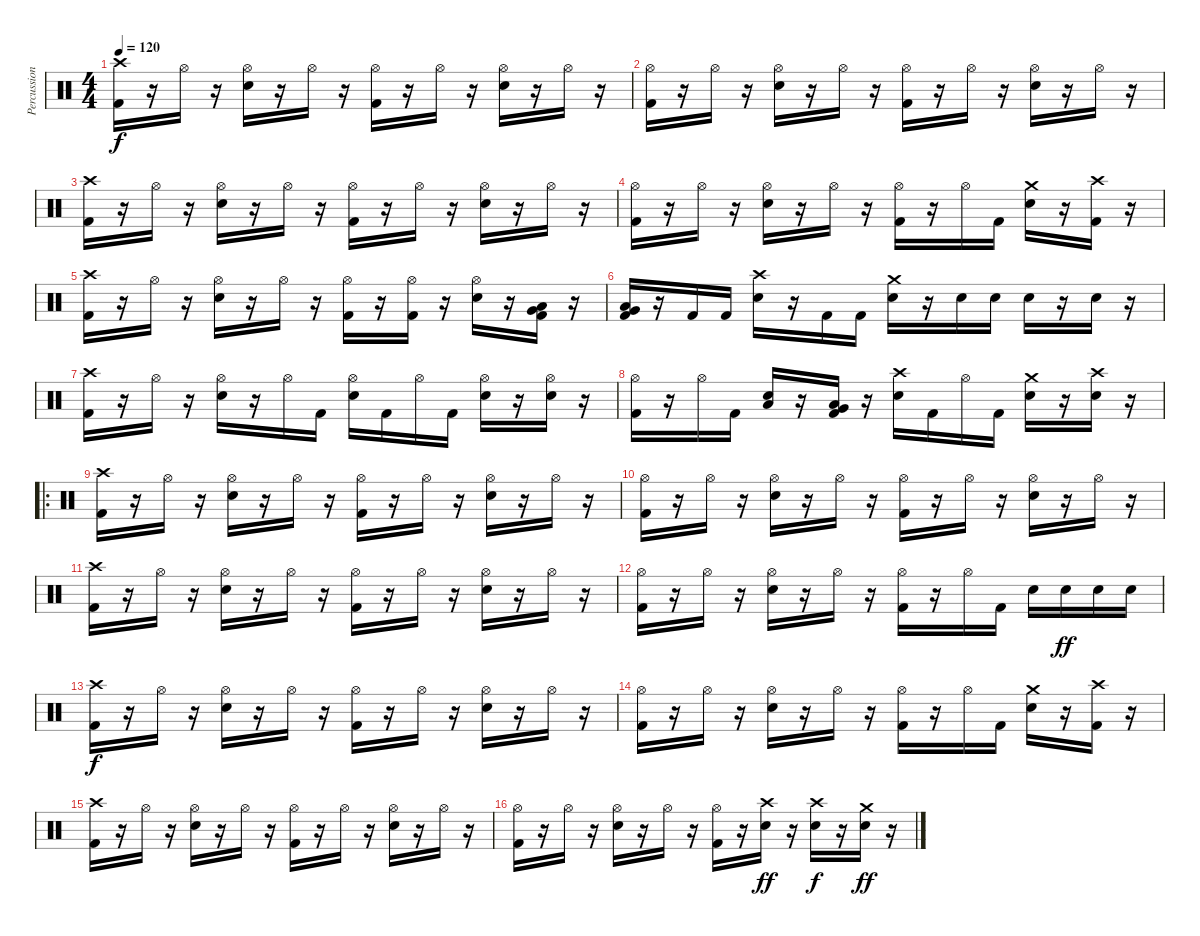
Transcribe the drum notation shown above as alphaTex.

\track ("Percussion" "Percussion") {instrument percussion}
\staff {score}
\articulation defaults
\ts (4 4)
\tempo 120
\clef neutral
\ks c
("Crash high (hit)" "Kick (hit) 2").16{dy f} r.16 "Hi-Hat (open)".16 r.16 ("Hi-Hat (open)" "Snare (hit) 2").16 r.16 "Hi-Hat (open)".16 r.16 ("Hi-Hat (open)" "Kick (hit) 2").16 r.16 "Hi-Hat (open)".16 r.16 ("Hi-Hat (open)" "Snare (hit) 2").16 r.16 "Hi-Hat (open)".16 r.16 |
("Hi-Hat (open)" "Kick (hit) 2").16 r.16 "Hi-Hat (open)".16 r.16 ("Hi-Hat (open)" "Snare (hit) 2").16 r.16 "Hi-Hat (open)".16 r.16 ("Hi-Hat (open)" "Kick (hit) 2").16 r.16 "Hi-Hat (open)".16 r.16 ("Hi-Hat (open)" "Snare (hit) 2").16 r.16 "Hi-Hat (open)".16 r.16 |
("Crash high (hit)" "Kick (hit) 2").16 r.16 "Hi-Hat (open)".16 r.16 ("Hi-Hat (open)" "Snare (hit) 2").16 r.16 "Hi-Hat (open)".16 r.16 ("Hi-Hat (open)" "Kick (hit) 2").16 r.16 "Hi-Hat (open)".16 r.16 ("Hi-Hat (open)" "Snare (hit) 2").16 r.16 "Hi-Hat (open)".16 r.16 |
("Hi-Hat (open)" "Kick (hit) 2").16 r.16 "Hi-Hat (open)".16 r.16 ("Hi-Hat (open)" "Snare (hit) 2").16 r.16 "Hi-Hat (open)".16 r.16 ("Hi-Hat (open)" "Kick (hit) 2").16 r.16 "Hi-Hat (open)".16 "Kick (hit) 2".16 ("Crash medium (hit)" "Snare (hit) 2").16 r.16 ("Crash high (hit)" "Kick (hit) 2").16 r.16 |
("Crash high (hit)" "Kick (hit) 2").16 r.16 "Hi-Hat (open)".16 r.16 ("Hi-Hat (open)" "Snare (hit) 2").16 r.16 "Hi-Hat (open)".16 r.16 ("Hi-Hat (open)" "Kick (hit) 2").16 r.16 ("Hi-Hat (open)" "Kick (hit) 2").16 r.16 ("Hi-Hat (open)" "Snare (hit) 2").16 r.16 ("Low Tom (hit)" "Very Low Tom (hit)" "Kick (hit) 2").16 r.16 |
("Very Low Tom (hit)" "Low Floor Tom (hit)" "Kick (hit) 2").16 r.16 "Kick (hit) 2".16 "Kick (hit) 2".16 ("Crash high (hit)" "Snare (hit) 2").16 r.16 "Kick (hit) 2".16 "Kick (hit) 2".16 ("Crash medium (hit)" "Snare (hit) 2").16 r.16 "Snare (hit) 2".16 "Snare (hit) 2".16 "Snare (hit) 2".16 r.16 "Snare (hit) 2".16 r.16 |
("Crash high (hit)" "Kick (hit) 2").16 r.16 "Hi-Hat (open)".16 r.16 ("Hi-Hat (open)" "Snare (hit) 2").16 r.16 "Hi-Hat (open)".16 "Kick (hit) 2".16 ("Hi-Hat (open)" "Snare (hit) 2").16 "Kick (hit) 2".16 "Hi-Hat (open)".16 "Kick (hit) 2".16 ("Hi-Hat (open)" "Snare (hit) 2").16 r.16 ("Hi-Hat (open)" "Snare (hit) 2").16 r.16 |
("Hi-Hat (open)" "Kick (hit) 2").16 r.16 "Hi-Hat (open)".16 "Kick (hit) 2".16 ("Low Tom (hit)" "Snare (hit) 2").16 r.16 ("Very Low Tom (hit)" "Low Floor Tom (hit)" "Kick (hit) 2").16 r.16 ("Crash high (hit)" "Snare (hit) 2").16 "Kick (hit) 2".16 "Hi-Hat (open)".16 "Kick (hit) 2".16 ("Crash medium (hit)" "Snare (hit) 2").16 r.16 ("Crash high (hit)" "Snare (hit) 2").16 r.16 |
\ro
("Crash high (hit)" "Kick (hit) 2").16 r.16 "Hi-Hat (open)".16 r.16 ("Hi-Hat (open)" "Snare (hit) 2").16 r.16 "Hi-Hat (open)".16 r.16 ("Hi-Hat (open)" "Kick (hit) 2").16 r.16 "Hi-Hat (open)".16 r.16 ("Hi-Hat (open)" "Snare (hit) 2").16 r.16 "Hi-Hat (open)".16 r.16 |
("Hi-Hat (open)" "Kick (hit) 2").16 r.16 "Hi-Hat (open)".16 r.16 ("Hi-Hat (open)" "Snare (hit) 2").16 r.16 "Hi-Hat (open)".16 r.16 ("Hi-Hat (open)" "Kick (hit) 2").16 r.16 "Hi-Hat (open)".16 r.16 ("Hi-Hat (open)" "Snare (hit) 2").16 r.16 "Hi-Hat (open)".16 r.16 |
("Crash high (hit)" "Kick (hit) 2").16 r.16 "Hi-Hat (open)".16 r.16 ("Hi-Hat (open)" "Snare (hit) 2").16 r.16 "Hi-Hat (open)".16 r.16 ("Hi-Hat (open)" "Kick (hit) 2").16 r.16 "Hi-Hat (open)".16 r.16 ("Hi-Hat (open)" "Snare (hit) 2").16 r.16 "Hi-Hat (open)".16 r.16 |
("Hi-Hat (open)" "Kick (hit) 2").16 r.16 "Hi-Hat (open)".16 r.16 ("Hi-Hat (open)" "Snare (hit) 2").16 r.16 "Hi-Hat (open)".16 r.16 ("Hi-Hat (open)" "Kick (hit) 2").16 r.16 "Hi-Hat (open)".16 "Kick (hit) 2".16 "Snare (hit) 2".16 "Snare (hit) 2".16{dy ff} "Snare (hit) 2".16 "Snare (hit) 2".16 |
("Crash high (hit)" "Kick (hit) 2").16{dy f} r.16 "Hi-Hat (open)".16 r.16 ("Hi-Hat (open)" "Snare (hit) 2").16 r.16 "Hi-Hat (open)".16 r.16 ("Hi-Hat (open)" "Kick (hit) 2").16 r.16 "Hi-Hat (open)".16 r.16 ("Hi-Hat (open)" "Snare (hit) 2").16 r.16 "Hi-Hat (open)".16 r.16 |
("Hi-Hat (open)" "Kick (hit) 2").16 r.16 "Hi-Hat (open)".16 r.16 ("Hi-Hat (open)" "Snare (hit) 2").16 r.16 "Hi-Hat (open)".16 r.16 ("Hi-Hat (open)" "Kick (hit) 2").16 r.16 "Hi-Hat (open)".16 "Kick (hit) 2".16 ("Crash medium (hit)" "Snare (hit) 2").16 r.16 ("Crash high (hit)" "Kick (hit) 2").16 r.16 |
("Crash high (hit)" "Kick (hit) 2").16 r.16 "Hi-Hat (open)".16 r.16 ("Hi-Hat (open)" "Snare (hit) 2").16 r.16 "Hi-Hat (open)".16 r.16 ("Hi-Hat (open)" "Kick (hit) 2").16 r.16 "Hi-Hat (open)".16 r.16 ("Hi-Hat (open)" "Snare (hit) 2").16 r.16 "Hi-Hat (open)".16 r.16 |
("Hi-Hat (open)" "Kick (hit) 2").16 r.16 "Hi-Hat (open)".16 r.16 ("Hi-Hat (open)" "Snare (hit) 2").16 r.16 "Hi-Hat (open)".16 r.16 ("Hi-Hat (open)" "Kick (hit) 2").16 r.16 ("Crash high (hit)" "Snare (hit) 2").16{dy ff} r.16 ("Crash high (hit)" "Snare (hit) 2").16{dy f} r.16 ("Crash medium (hit)" "Snare (hit) 2").16{dy ff} r.16
